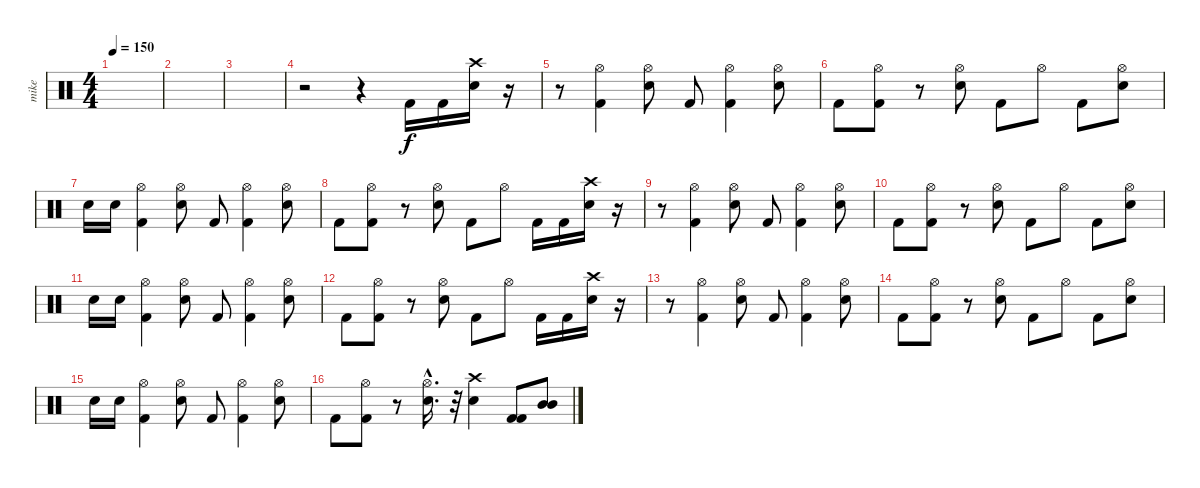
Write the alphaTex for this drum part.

\track ("mike" "mike") {instrument percussion}
\staff {score}
\articulation defaults
\ts (4 4)
\tempo 150
\clef neutral
\ks c
|
|
|
r.2 r.4 "Kick (hit) 2".16 "Kick (hit) 2".16 ("Crash high (hit)" "Electric Snare (hit)").16 r.16 |
r.8 ("Hi-Hat (open)" "Kick (hit) 2").4 ("Hi-Hat (open)" "Electric Snare (hit)").8 "Kick (hit) 2".8 ("Hi-Hat (open)" "Kick (hit) 2").4 ("Hi-Hat (open)" "Electric Snare (hit)").8 |
"Kick (hit) 2".8 ("Hi-Hat (open)" "Kick (hit) 2").8 r.8 ("Hi-Hat (open)" "Electric Snare (hit)").8 "Kick (hit) 2".8 "Hi-Hat (open)".8 "Kick (hit) 2".8 ("Hi-Hat (open)" "Electric Snare (hit)").8 |
"Electric Snare (hit)".16 "Electric Snare (hit)".16 ("Kick (hit) 2" "Hi-Hat (open)").4 ("Electric Snare (hit)" "Hi-Hat (open)").8 "Kick (hit) 2".8 ("Kick (hit) 2" "Hi-Hat (open)").4 ("Electric Snare (hit)" "Hi-Hat (open)").8 |
"Kick (hit) 2".8 ("Kick (hit) 2" "Hi-Hat (open)").8 r.8 ("Electric Snare (hit)" "Hi-Hat (open)").8 "Kick (hit) 2".8 "Hi-Hat (open)".8 "Kick (hit) 2".16 "Kick (hit) 2".16 ("Crash high (hit)" "Electric Snare (hit)").16 r.16 |
r.8 ("Kick (hit) 2" "Hi-Hat (open)").4 ("Electric Snare (hit)" "Hi-Hat (open)").8 "Kick (hit) 2".8 ("Kick (hit) 2" "Hi-Hat (open)").4 ("Electric Snare (hit)" "Hi-Hat (open)").8 |
"Kick (hit) 2".8 ("Kick (hit) 2" "Hi-Hat (open)").8 r.8 ("Electric Snare (hit)" "Hi-Hat (open)").8 "Kick (hit) 2".8 "Hi-Hat (open)".8 "Kick (hit) 2".8 ("Electric Snare (hit)" "Hi-Hat (open)").8 |
"Electric Snare (hit)".16 "Electric Snare (hit)".16 ("Kick (hit) 2" "Hi-Hat (open)").4 ("Electric Snare (hit)" "Hi-Hat (open)").8 "Kick (hit) 2".8 ("Kick (hit) 2" "Hi-Hat (open)").4 ("Electric Snare (hit)" "Hi-Hat (open)").8 |
"Kick (hit) 2".8 ("Kick (hit) 2" "Hi-Hat (open)").8 r.8 ("Electric Snare (hit)" "Hi-Hat (open)").8 "Kick (hit) 2".8 "Hi-Hat (open)".8 "Kick (hit) 2".16 "Kick (hit) 2".16 ("Crash high (hit)" "Electric Snare (hit)").16 r.16 |
r.8 ("Kick (hit) 2" "Hi-Hat (open)").4 ("Electric Snare (hit)" "Hi-Hat (open)").8 "Kick (hit) 2".8 ("Kick (hit) 2" "Hi-Hat (open)").4 ("Electric Snare (hit)" "Hi-Hat (open)").8 |
"Kick (hit) 2".8 ("Kick (hit) 2" "Hi-Hat (open)").8 r.8 ("Electric Snare (hit)" "Hi-Hat (open)").8 "Kick (hit) 2".8 "Hi-Hat (open)".8 "Kick (hit) 2".8 ("Electric Snare (hit)" "Hi-Hat (open)").8 |
"Electric Snare (hit)".16 "Electric Snare (hit)".16 ("Kick (hit) 2" "Hi-Hat (open)").4 ("Electric Snare (hit)" "Hi-Hat (open)").8 "Kick (hit) 2".8 ("Kick (hit) 2" "Hi-Hat (open)").4 ("Electric Snare (hit)" "Hi-Hat (open)").8 |
"Kick (hit) 2".8 ("Kick (hit) 2" "Hi-Hat (open)").8 r.8 ("Electric Snare (hit)"{hac} "Hi-Hat (open)"{hac}).16{d} r.32 ("Electric Snare (hit)" "Crash high (hit)").4 ("Kick (hit) 2" "Kick (hit) 2").8 ("Mid Tom (hit)" "Mid Tom (hit)").8
